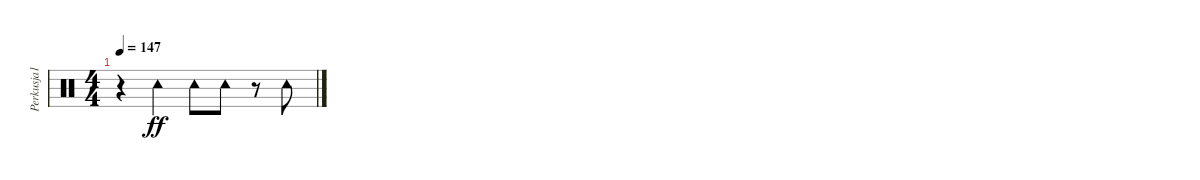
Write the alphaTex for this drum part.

\track ("Perkusja1" "Perkusja1") {instrument percussion}
\staff {score}
\articulation defaults
\ts (4 4)
\tempo 147
\clef neutral
\ks c
r.4{dy ff} "Tambourine (hit)".4 "Tambourine (hit)".8 "Tambourine (hit)".8 r.8 "Tambourine (hit)".8
